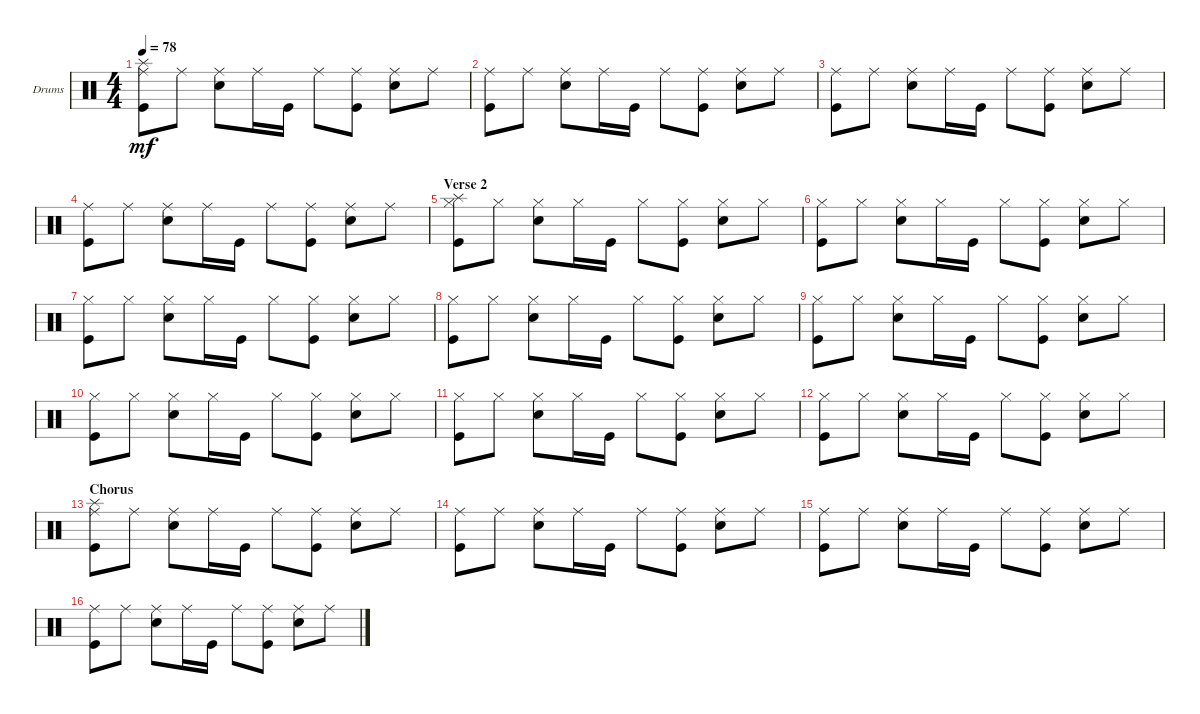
\defaultSystemsLayout 4
\bracketExtendMode groupsimilarinstruments
\firstSystemTrackNameOrientation horizontal
\otherSystemsTrackNameOrientation horizontal
\track ("Drumkit" "Drums") {instrument percussion}
\staff {score}
\articulation defaults
\ts (4 4)
\scale
0.314118
\tempo 78
\accidentals auto
\clef neutral
\ottava regular
\simile none
\ks c
("Kick (hit)" "Splash (hit)" "Ride (middle)").8{dy mf} "Ride (middle)".8 ("Snare (hit) 2" "Ride (middle)").8 "Ride (middle)".16 "Kick (hit)".16 "Ride (middle)".8 ("Kick (hit)" "Ride (middle)").8 ("Snare (hit) 2" "Ride (middle)").8 "Ride (middle)".8 |
\scale
0.243644 ("Kick (hit)" "Ride (middle)").8 "Ride (middle)".8 ("Snare (hit) 2" "Ride (middle)").8 "Ride (middle)".16 "Kick (hit)".16 "Ride (middle)".8 ("Kick (hit)" "Ride (middle)").8 ("Snare (hit) 2" "Ride (middle)").8 "Ride (middle)".8 |
\scale
0.195467 ("Kick (hit)" "Ride (middle)").8 "Ride (middle)".8 ("Snare (hit) 2" "Ride (middle)").8 "Ride (middle)".16 "Kick (hit)".16 "Ride (middle)".8 ("Kick (hit)" "Ride (middle)").8 ("Snare (hit) 2" "Ride (middle)").8 "Ride (middle)".8 |
("Kick (hit)" "Ride (middle)").8 "Ride (middle)".8 ("Snare (hit) 2" "Ride (middle)").8 "Ride (middle)".16 "Kick (hit)".16 "Ride (middle)".8 ("Kick (hit)" "Ride (middle)").8 ("Snare (hit) 2" "Ride (middle)").8 "Ride (middle)".8 |
\section ("" "Verse 2")
("Kick (hit)" "Hi-Hat (closed)" "Splash (hit)").8 "Hi-Hat (closed)".8 ("Hi-Hat (closed)" "Snare (hit) 2").8 "Hi-Hat (closed)".16 "Kick (hit)".16 "Hi-Hat (closed)".8 ("Kick (hit)" "Hi-Hat (closed)").8 ("Hi-Hat (closed)" "Snare (hit) 2").8 "Hi-Hat (closed)".8 |
("Kick (hit)" "Hi-Hat (closed)").8 "Hi-Hat (closed)".8 ("Hi-Hat (closed)" "Snare (hit) 2").8 "Hi-Hat (closed)".16 "Kick (hit)".16 "Hi-Hat (closed)".8 ("Kick (hit)" "Hi-Hat (closed)").8 ("Hi-Hat (closed)" "Snare (hit) 2").8 "Hi-Hat (closed)".8 |
("Kick (hit)" "Hi-Hat (closed)").8 "Hi-Hat (closed)".8 ("Hi-Hat (closed)" "Snare (hit) 2").8 "Hi-Hat (closed)".16 "Kick (hit)".16 "Hi-Hat (closed)".8 ("Kick (hit)" "Hi-Hat (closed)").8 ("Hi-Hat (closed)" "Snare (hit) 2").8 "Hi-Hat (closed)".8 |
("Kick (hit)" "Hi-Hat (closed)").8 "Hi-Hat (closed)".8 ("Hi-Hat (closed)" "Snare (hit) 2").8 "Hi-Hat (closed)".16 "Kick (hit)".16 "Hi-Hat (closed)".8 ("Kick (hit)" "Hi-Hat (closed)").8 ("Hi-Hat (closed)" "Snare (hit) 2").8 "Hi-Hat (closed)".8 |
("Kick (hit)" "Hi-Hat (closed)").8 "Hi-Hat (closed)".8 ("Hi-Hat (closed)" "Snare (hit) 2").8 "Hi-Hat (closed)".16 "Kick (hit)".16 "Hi-Hat (closed)".8 ("Kick (hit)" "Hi-Hat (closed)").8 ("Hi-Hat (closed)" "Snare (hit) 2").8 "Hi-Hat (closed)".8 |
("Kick (hit)" "Hi-Hat (closed)").8 "Hi-Hat (closed)".8 ("Hi-Hat (closed)" "Snare (hit) 2").8 "Hi-Hat (closed)".16 "Kick (hit)".16 "Hi-Hat (closed)".8 ("Kick (hit)" "Hi-Hat (closed)").8 ("Hi-Hat (closed)" "Snare (hit) 2").8 "Hi-Hat (closed)".8 |
("Kick (hit)" "Hi-Hat (closed)").8 "Hi-Hat (closed)".8 ("Hi-Hat (closed)" "Snare (hit) 2").8 "Hi-Hat (closed)".16 "Kick (hit)".16 "Hi-Hat (closed)".8 ("Kick (hit)" "Hi-Hat (closed)").8 ("Hi-Hat (closed)" "Snare (hit) 2").8 "Hi-Hat (closed)".8 |
("Kick (hit)" "Hi-Hat (closed)").8 "Hi-Hat (closed)".8 ("Hi-Hat (closed)" "Snare (hit) 2").8 "Hi-Hat (closed)".16 "Kick (hit)".16 "Hi-Hat (closed)".8 ("Kick (hit)" "Hi-Hat (closed)").8 ("Hi-Hat (closed)" "Snare (hit) 2").8 "Hi-Hat (closed)".8 |
\section ("" "Chorus")
\scale
0.314118 ("Kick (hit)" "Splash (hit)" "Ride (middle)").8 "Ride (middle)".8 ("Snare (hit) 2" "Ride (middle)").8 "Ride (middle)".16 "Kick (hit)".16 "Ride (middle)".8 ("Kick (hit)" "Ride (middle)").8 ("Snare (hit) 2" "Ride (middle)").8 "Ride (middle)".8 |
\scale
0.243644 ("Kick (hit)" "Ride (middle)").8 "Ride (middle)".8 ("Snare (hit) 2" "Ride (middle)").8 "Ride (middle)".16 "Kick (hit)".16 "Ride (middle)".8 ("Kick (hit)" "Ride (middle)").8 ("Snare (hit) 2" "Ride (middle)").8 "Ride (middle)".8 |
\scale
0.195467 ("Kick (hit)" "Ride (middle)").8 "Ride (middle)".8 ("Snare (hit) 2" "Ride (middle)").8 "Ride (middle)".16 "Kick (hit)".16 "Ride (middle)".8 ("Kick (hit)" "Ride (middle)").8 ("Snare (hit) 2" "Ride (middle)").8 "Ride (middle)".8 |
("Kick (hit)" "Ride (middle)").8 "Ride (middle)".8 ("Snare (hit) 2" "Ride (middle)").8 "Ride (middle)".16 "Kick (hit)".16 "Ride (middle)".8 ("Kick (hit)" "Ride (middle)").8 ("Snare (hit) 2" "Ride (middle)").8 "Ride (middle)".8
